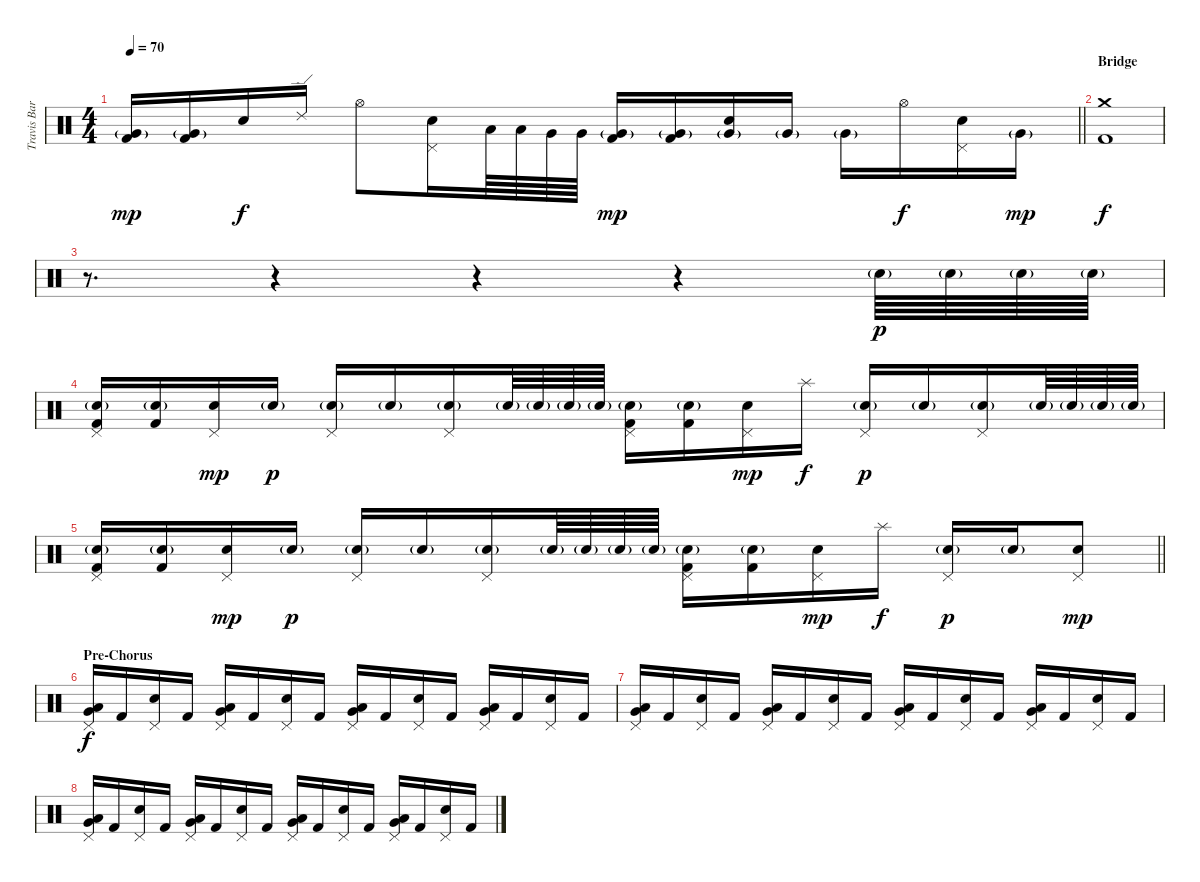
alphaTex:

\track ("Travis Barker" "Travis Bar") {instrument percussion}
\staff {score}
\articulation defaults
\ts (4 4)
\tempo 70
\clef neutral
\barLineRight lightlight
\ks c
("Very Low Tom (hit)"{g} "Kick (hit) 2").16{dy mp} ("Very Low Tom (hit)"{g} "Kick (hit) 2").16 "Electric Snare (hit)".16{dy f} "Ride (edge) 2".16 "Hi-Hat (open)".8 ("Pedal Hi-Hat (hit)" "Electric Snare (hit)").16 "Low Tom (hit)".64 "Low Tom (hit)".64 "Very Low Tom (hit)".64 "Very Low Tom (hit)".64 ("Very Low Tom (hit)"{g} "Kick (hit) 2").16{dy mp} ("Very Low Tom (hit)"{g} "Kick (hit) 2").16 ("Electric Snare (hit)" "Very Low Tom (hit)"{g}).16 "Very Low Tom (hit)"{g}.16 "Very Low Tom (hit)"{g}.16 "Hi-Hat (open)".16{dy f} ("Pedal Hi-Hat (hit)" "Electric Snare (hit)").16 "Very Low Tom (hit)"{g}.16{dy mp} |
\section ("" "Bridge")
("Crash medium (hit)" "Kick (hit) 2").1{dy f} |
r.8{d} r.4 r.4 r.4 "Electric Snare (hit)"{g}.64{dy p} "Electric Snare (hit)"{g}.64 "Electric Snare (hit)"{g}.64 "Electric Snare (hit)"{g}.64 |
("Pedal Hi-Hat (hit)" "Electric Snare (hit)"{g} "Kick (hit) 2").16 ("Electric Snare (hit)"{g} "Kick (hit) 2").16 ("Pedal Hi-Hat (hit)" "Electric Snare (hit)").16{dy mp} "Electric Snare (hit)"{g}.16{dy p} ("Pedal Hi-Hat (hit)" "Electric Snare (hit)"{g}).16 "Electric Snare (hit)"{g}.16 ("Pedal Hi-Hat (hit)" "Electric Snare (hit)"{g}).16 "Electric Snare (hit)"{g}.64 "Electric Snare (hit)"{g}.64 "Electric Snare (hit)"{g}.64 "Electric Snare (hit)"{g}.64 ("Pedal Hi-Hat (hit)" "Electric Snare (hit)"{g} "Kick (hit) 2").16 ("Electric Snare (hit)"{g} "Kick (hit) 2").16 ("Pedal Hi-Hat (hit)" "Electric Snare (hit)").16{dy mp} "Splash (hit)".16{dy f} ("Pedal Hi-Hat (hit)" "Electric Snare (hit)"{g}).16{dy p} "Electric Snare (hit)"{g}.16 ("Pedal Hi-Hat (hit)" "Electric Snare (hit)"{g}).16 "Electric Snare (hit)"{g}.64 "Electric Snare (hit)"{g}.64 "Electric Snare (hit)"{g}.64 "Electric Snare (hit)"{g}.64 |
\barLineRight lightlight
("Pedal Hi-Hat (hit)" "Electric Snare (hit)"{g} "Kick (hit) 2").16 ("Electric Snare (hit)"{g} "Kick (hit) 2").16 ("Pedal Hi-Hat (hit)" "Electric Snare (hit)").16{dy mp} "Electric Snare (hit)"{g}.16{dy p} ("Pedal Hi-Hat (hit)" "Electric Snare (hit)"{g}).16 "Electric Snare (hit)"{g}.16 ("Pedal Hi-Hat (hit)" "Electric Snare (hit)"{g}).16 "Electric Snare (hit)"{g}.64 "Electric Snare (hit)"{g}.64 "Electric Snare (hit)"{g}.64 "Electric Snare (hit)"{g}.64 ("Pedal Hi-Hat (hit)" "Electric Snare (hit)"{g} "Kick (hit) 2").16 ("Electric Snare (hit)"{g} "Kick (hit) 2").16 ("Pedal Hi-Hat (hit)" "Electric Snare (hit)").16{dy mp} "Splash (hit)".16{dy f} ("Pedal Hi-Hat (hit)" "Electric Snare (hit)"{g}).16{dy p} "Electric Snare (hit)"{g}.16 ("Pedal Hi-Hat (hit)" "Electric Snare (hit)").8{dy mp} |
\section ("" "Pre-Chorus")
("Pedal Hi-Hat (hit)" "Low Tom (hit)" "Very Low Tom (hit)").16{dy f} "Kick (hit) 2".16 ("Pedal Hi-Hat (hit)" "Electric Snare (hit)").16 "Kick (hit) 2".16 ("Pedal Hi-Hat (hit)" "Low Tom (hit)" "Very Low Tom (hit)").16 "Kick (hit) 2".16 ("Pedal Hi-Hat (hit)" "Electric Snare (hit)").16 "Kick (hit) 2".16 ("Pedal Hi-Hat (hit)" "Low Tom (hit)" "Very Low Tom (hit)").16 "Kick (hit) 2".16 ("Pedal Hi-Hat (hit)" "Electric Snare (hit)").16 "Kick (hit) 2".16 ("Pedal Hi-Hat (hit)" "Low Tom (hit)" "Very Low Tom (hit)").16 "Kick (hit) 2".16 ("Pedal Hi-Hat (hit)" "Electric Snare (hit)").16 "Kick (hit) 2".16 |
("Pedal Hi-Hat (hit)" "Low Tom (hit)" "Very Low Tom (hit)").16 "Kick (hit) 2".16 ("Pedal Hi-Hat (hit)" "Electric Snare (hit)").16 "Kick (hit) 2".16 ("Pedal Hi-Hat (hit)" "Low Tom (hit)" "Very Low Tom (hit)").16 "Kick (hit) 2".16 ("Pedal Hi-Hat (hit)" "Electric Snare (hit)").16 "Kick (hit) 2".16 ("Pedal Hi-Hat (hit)" "Low Tom (hit)" "Very Low Tom (hit)").16 "Kick (hit) 2".16 ("Pedal Hi-Hat (hit)" "Electric Snare (hit)").16 "Kick (hit) 2".16 ("Pedal Hi-Hat (hit)" "Low Tom (hit)" "Very Low Tom (hit)").16 "Kick (hit) 2".16 ("Pedal Hi-Hat (hit)" "Electric Snare (hit)").16 "Kick (hit) 2".16 |
("Pedal Hi-Hat (hit)" "Low Tom (hit)" "Very Low Tom (hit)").16 "Kick (hit) 2".16 ("Pedal Hi-Hat (hit)" "Electric Snare (hit)").16 "Kick (hit) 2".16 ("Pedal Hi-Hat (hit)" "Low Tom (hit)" "Very Low Tom (hit)").16 "Kick (hit) 2".16 ("Pedal Hi-Hat (hit)" "Electric Snare (hit)").16 "Kick (hit) 2".16 ("Pedal Hi-Hat (hit)" "Low Tom (hit)" "Very Low Tom (hit)").16 "Kick (hit) 2".16 ("Pedal Hi-Hat (hit)" "Electric Snare (hit)").16 "Kick (hit) 2".16 ("Pedal Hi-Hat (hit)" "Low Tom (hit)" "Very Low Tom (hit)").16 "Kick (hit) 2".16 ("Pedal Hi-Hat (hit)" "Electric Snare (hit)").16 "Kick (hit) 2".16
